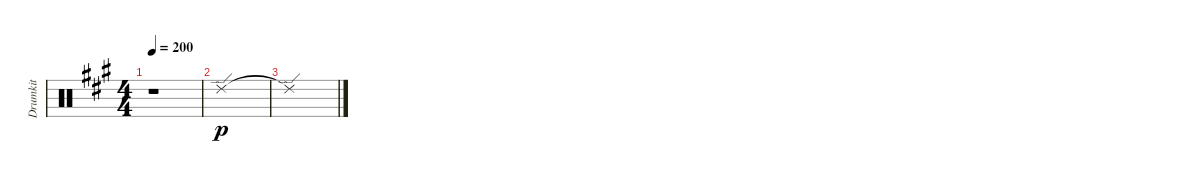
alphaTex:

\track ("Drumkit" "Drumkit") {instrument percussion}
\staff {score}
\articulation defaults
\ts (4 4)
\tempo 200
\clef neutral
\ks a
r.1{dy ppp} |
"Ride (edge) 2".1{dy p} |
"Ride (edge) 2"{t}.1
